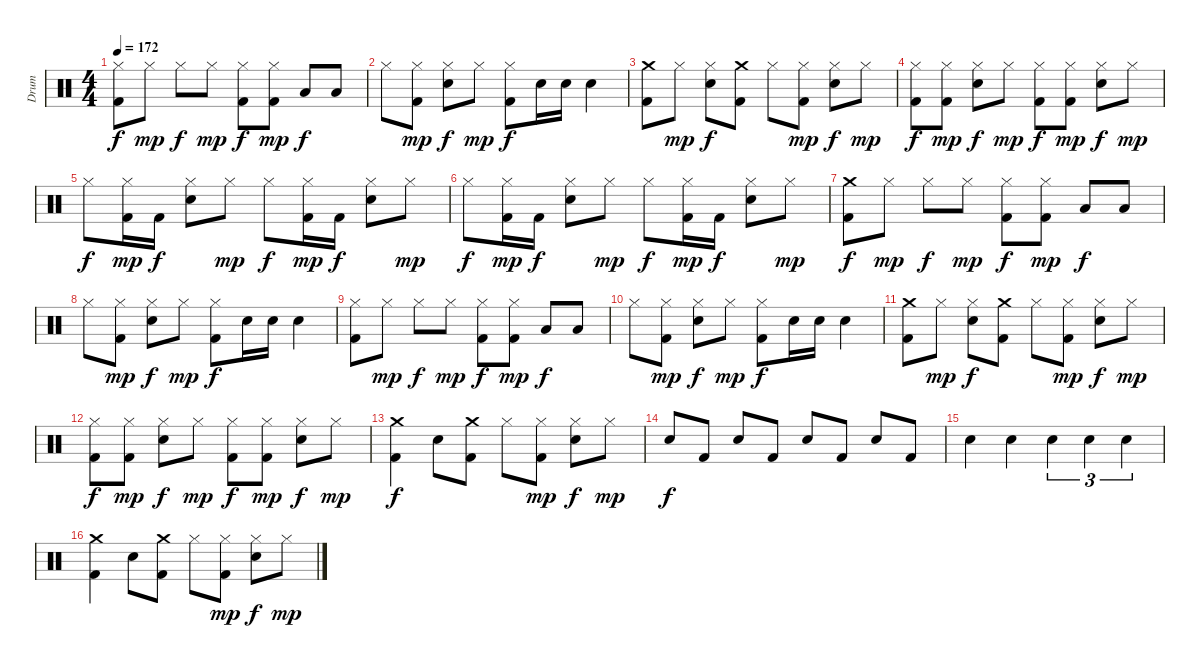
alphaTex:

\track ("Drum" "Drum") {instrument percussion}
\staff {score}
\articulation defaults
\ts (4 4)
\tempo 172
\clef neutral
\ks c
("Hi-Hat (closed)" "Kick (hit) 2").8{dy f} "Hi-Hat (closed)".8{dy mp} "Hi-Hat (closed)".8{dy f} "Hi-Hat (closed)".8{dy mp} ("Hi-Hat (closed)" "Kick (hit) 2").8{dy f} ("Hi-Hat (closed)" "Kick (hit) 2").8{dy mp} "Low Tom (hit)".8{dy f} "Low Tom (hit)".8 |
"Hi-Hat (closed)".8 ("Hi-Hat (closed)" "Kick (hit) 2").8{dy mp} ("Hi-Hat (closed)" "Electric Snare (hit)").8{dy f} "Hi-Hat (closed)".8{dy mp} ("Hi-Hat (closed)" "Kick (hit) 2").8{dy f} "Electric Snare (hit)".16 "Electric Snare (hit)".16 "Electric Snare (hit)".4 |
("Crash medium (hit)" "Kick (hit) 2").8 "Hi-Hat (closed)".8{dy mp} ("Hi-Hat (closed)" "Electric Snare (hit)").8{dy f} ("Crash medium (hit)" "Kick (hit) 2").8 "Hi-Hat (closed)".8 ("Hi-Hat (closed)" "Kick (hit) 2").8{dy mp} ("Hi-Hat (closed)" "Electric Snare (hit)").8{dy f} "Hi-Hat (closed)".8{dy mp} |
("Hi-Hat (closed)" "Kick (hit) 2").8{dy f} ("Hi-Hat (closed)" "Kick (hit) 2").8{dy mp} ("Hi-Hat (closed)" "Electric Snare (hit)").8{dy f} "Hi-Hat (closed)".8{dy mp} ("Hi-Hat (closed)" "Kick (hit) 2").8{dy f} ("Hi-Hat (closed)" "Kick (hit) 2").8{dy mp} ("Hi-Hat (closed)" "Electric Snare (hit)").8{dy f} "Hi-Hat (closed)".8{dy mp} |
"Hi-Hat (closed)".8{dy f} ("Hi-Hat (closed)" "Kick (hit) 2").16{dy mp} "Kick (hit) 2".16{dy f} ("Hi-Hat (closed)" "Electric Snare (hit)").8 "Hi-Hat (closed)".8{dy mp} "Hi-Hat (closed)".8{dy f} ("Hi-Hat (closed)" "Kick (hit) 2").16{dy mp} "Kick (hit) 2".16{dy f} ("Hi-Hat (closed)" "Electric Snare (hit)").8 "Hi-Hat (closed)".8{dy mp} |
"Hi-Hat (closed)".8{dy f} ("Hi-Hat (closed)" "Kick (hit) 2").16{dy mp} "Kick (hit) 2".16{dy f} ("Hi-Hat (closed)" "Electric Snare (hit)").8 "Hi-Hat (closed)".8{dy mp} "Hi-Hat (closed)".8{dy f} ("Hi-Hat (closed)" "Kick (hit) 2").16{dy mp} "Kick (hit) 2".16{dy f} ("Hi-Hat (closed)" "Electric Snare (hit)").8 "Hi-Hat (closed)".8{dy mp} |
("Crash medium (hit)" "Kick (hit) 2").8{dy f} "Hi-Hat (closed)".8{dy mp} "Hi-Hat (closed)".8{dy f} "Hi-Hat (closed)".8{dy mp} ("Hi-Hat (closed)" "Kick (hit) 2").8{dy f} ("Hi-Hat (closed)" "Kick (hit) 2").8{dy mp} "Low Tom (hit)".8{dy f} "Low Tom (hit)".8 |
"Hi-Hat (closed)".8 ("Hi-Hat (closed)" "Kick (hit) 2").8{dy mp} ("Hi-Hat (closed)" "Electric Snare (hit)").8{dy f} "Hi-Hat (closed)".8{dy mp} ("Hi-Hat (closed)" "Kick (hit) 2").8{dy f} "Electric Snare (hit)".16 "Electric Snare (hit)".16 "Electric Snare (hit)".4 |
("Hi-Hat (closed)" "Kick (hit) 2").8 "Hi-Hat (closed)".8{dy mp} "Hi-Hat (closed)".8{dy f} "Hi-Hat (closed)".8{dy mp} ("Hi-Hat (closed)" "Kick (hit) 2").8{dy f} ("Hi-Hat (closed)" "Kick (hit) 2").8{dy mp} "Low Tom (hit)".8{dy f} "Low Tom (hit)".8 |
"Hi-Hat (closed)".8 ("Hi-Hat (closed)" "Kick (hit) 2").8{dy mp} ("Hi-Hat (closed)" "Electric Snare (hit)").8{dy f} "Hi-Hat (closed)".8{dy mp} ("Hi-Hat (closed)" "Kick (hit) 2").8{dy f} "Electric Snare (hit)".16 "Electric Snare (hit)".16 "Electric Snare (hit)".4 |
("Crash medium (hit)" "Kick (hit) 2").8 "Hi-Hat (closed)".8{dy mp} ("Hi-Hat (closed)" "Electric Snare (hit)").8{dy f} ("Crash medium (hit)" "Kick (hit) 2").8 "Hi-Hat (closed)".8 ("Hi-Hat (closed)" "Kick (hit) 2").8{dy mp} ("Hi-Hat (closed)" "Electric Snare (hit)").8{dy f} "Hi-Hat (closed)".8{dy mp} |
("Hi-Hat (closed)" "Kick (hit) 2").8{dy f} ("Hi-Hat (closed)" "Kick (hit) 2").8{dy mp} ("Hi-Hat (closed)" "Electric Snare (hit)").8{dy f} "Hi-Hat (closed)".8{dy mp} ("Hi-Hat (closed)" "Kick (hit) 2").8{dy f} ("Hi-Hat (closed)" "Kick (hit) 2").8{dy mp} ("Hi-Hat (closed)" "Electric Snare (hit)").8{dy f} "Hi-Hat (closed)".8{dy mp} |
("Crash medium (hit)" "Kick (hit) 2").4{dy f} "Electric Snare (hit)".8 ("Crash medium (hit)" "Kick (hit) 2").8 "Hi-Hat (closed)".8 ("Hi-Hat (closed)" "Kick (hit) 2").8{dy mp} ("Hi-Hat (closed)" "Electric Snare (hit)").8{dy f} "Hi-Hat (closed)".8{dy mp} |
"Electric Snare (hit)".8{dy f} "Kick (hit) 2".8 "Electric Snare (hit)".8 "Kick (hit) 2".8 "Electric Snare (hit)".8 "Kick (hit) 2".8 "Electric Snare (hit)".8 "Kick (hit) 2".8 |
"Electric Snare (hit)".4 "Electric Snare (hit)".4 "Electric Snare (hit)".4{tu (3 2)} "Electric Snare (hit)".4{tu (3 2)} "Electric Snare (hit)".4{tu (3 2)} |
("Crash medium (hit)" "Kick (hit) 2").4 "Electric Snare (hit)".8 ("Crash medium (hit)" "Kick (hit) 2").8 "Hi-Hat (closed)".8 ("Hi-Hat (closed)" "Kick (hit) 2").8{dy mp} ("Hi-Hat (closed)" "Electric Snare (hit)").8{dy f} "Hi-Hat (closed)".8{dy mp}
